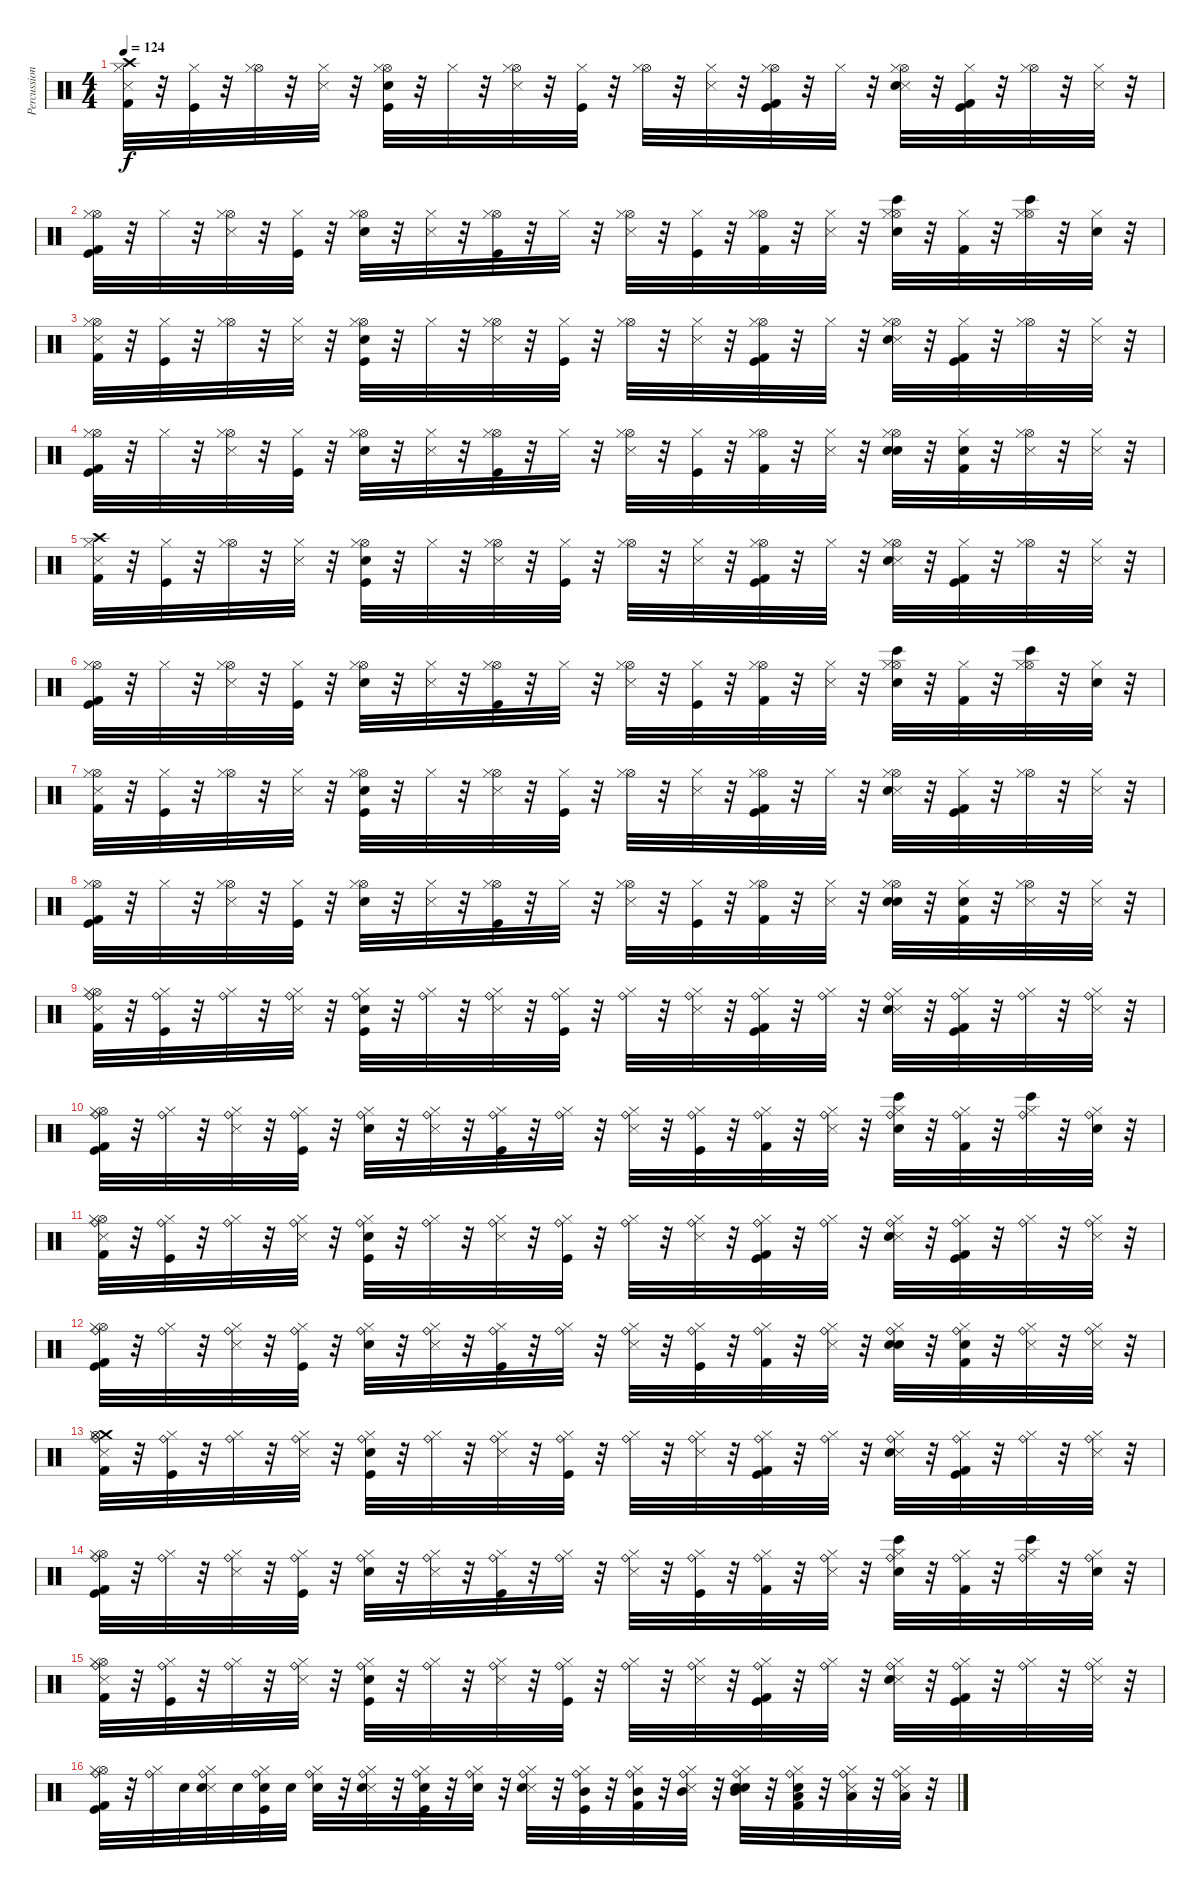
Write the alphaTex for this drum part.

\track ("Percussions" "Percussion") {instrument percussion}
\staff {score}
\articulation defaults
\ts (4 4)
\tempo 124
\clef neutral
\ks c
("Metronome (hit)" "Crash high (hit)" "Kick (hit) 2" "Hi-Hat (closed)").32{dy f} r.32 ("Kick (hit)" "Hi-Hat (closed)").32 r.32 ("Hi-Hat (open)" "Hi-Hat (closed)").32 r.32 ("Metronome (hit)" "Hi-Hat (closed)").32 r.32 ("Kick (hit)" "Hi-Hat (open)" "Electric Snare (hit)" "Hi-Hat (closed)").32 r.32 "Hi-Hat (closed)".32 r.32 ("Metronome (hit)" "Hi-Hat (open)" "Hi-Hat (closed)").32 r.32 ("Kick (hit)" "Hi-Hat (closed)").32 r.32 ("Hi-Hat (open)" "Hi-Hat (closed)").32 r.32 ("Metronome (hit)" "Hi-Hat (closed)").32 r.32 ("Kick (hit)" "Hi-Hat (open)" "Kick (hit) 2" "Hi-Hat (closed)").32 r.32 "Hi-Hat (closed)".32 r.32 ("Metronome (hit)" "Hi-Hat (open)" "Electric Snare (hit)" "Hi-Hat (closed)").32 r.32 ("Kick (hit)" "Kick (hit) 2" "Hi-Hat (closed)").32 r.32 ("Hi-Hat (open)" "Hi-Hat (closed)").32 r.32 ("Metronome (hit)" "Hi-Hat (closed)").32 r.32 |
("Kick (hit)" "Hi-Hat (open)" "Kick (hit) 2" "Hi-Hat (closed)").32 r.32 "Hi-Hat (closed)".32 r.32 ("Metronome (hit)" "Hi-Hat (open)" "Hi-Hat (closed)").32 r.32 ("Kick (hit)" "Hi-Hat (closed)").32 r.32 ("Hi-Hat (open)" "Electric Snare (hit)" "Hi-Hat (closed)").32 r.32 ("Metronome (hit)" "Hi-Hat (closed)").32 r.32 ("Kick (hit)" "Hi-Hat (open)" "Hi-Hat (closed)").32 r.32 "Hi-Hat (closed)".32 r.32 ("Metronome (hit)" "Hi-Hat (open)" "Hi-Hat (closed)").32 r.32 ("Kick (hit)" "Hi-Hat (closed)").32 r.32 ("Hi-Hat (open)" "Kick (hit) 2" "Hi-Hat (closed)").32 r.32 ("Metronome (hit)" "Hi-Hat (closed)").32 r.32 ("Bongo High (hit)" "Hi-Hat (open)" "Electric Snare (hit)" "Hi-Hat (closed)").32 r.32 ("Kick (hit) 2" "Hi-Hat (closed)").32 r.32 ("Bongo High (hit)" "Hi-Hat (open)" "Hi-Hat (closed)").32 r.32 ("Hi-Hat (closed)" "Electric Snare (hit)").32 r.32 |
("Metronome (hit)" "Kick (hit) 2" "Hi-Hat (open)" "Hi-Hat (closed)").32 r.32 ("Kick (hit)" "Hi-Hat (closed)").32 r.32 ("Hi-Hat (open)" "Hi-Hat (closed)").32 r.32 ("Metronome (hit)" "Hi-Hat (closed)").32 r.32 ("Kick (hit)" "Hi-Hat (open)" "Electric Snare (hit)" "Hi-Hat (closed)").32 r.32 "Hi-Hat (closed)".32 r.32 ("Metronome (hit)" "Hi-Hat (open)" "Hi-Hat (closed)").32 r.32 ("Kick (hit)" "Hi-Hat (closed)").32 r.32 ("Hi-Hat (open)" "Hi-Hat (closed)").32 r.32 ("Metronome (hit)" "Hi-Hat (closed)").32 r.32 ("Kick (hit)" "Hi-Hat (open)" "Kick (hit) 2" "Hi-Hat (closed)").32 r.32 "Hi-Hat (closed)".32 r.32 ("Metronome (hit)" "Hi-Hat (open)" "Electric Snare (hit)" "Hi-Hat (closed)").32 r.32 ("Kick (hit)" "Kick (hit) 2" "Hi-Hat (closed)").32 r.32 ("Hi-Hat (open)" "Hi-Hat (closed)").32 r.32 ("Metronome (hit)" "Hi-Hat (closed)").32 r.32 |
("Kick (hit)" "Kick (hit) 2" "Hi-Hat (open)" "Hi-Hat (closed)").32 r.32 "Hi-Hat (closed)".32 r.32 ("Metronome (hit)" "Hi-Hat (open)" "Hi-Hat (closed)").32 r.32 ("Kick (hit)" "Hi-Hat (closed)").32 r.32 ("Hi-Hat (open)" "Electric Snare (hit)" "Hi-Hat (closed)").32 r.32 ("Metronome (hit)" "Hi-Hat (closed)").32 r.32 ("Kick (hit)" "Hi-Hat (open)" "Hi-Hat (closed)").32 r.32 "Hi-Hat (closed)".32 r.32 ("Metronome (hit)" "Hi-Hat (open)" "Hi-Hat (closed)").32 r.32 ("Kick (hit)" "Hi-Hat (closed)").32 r.32 ("Hi-Hat (open)" "Kick (hit) 2" "Hi-Hat (closed)").32 r.32 ("Metronome (hit)" "Hi-Hat (closed)").32 r.32 ("Hand Clap (hit)" "Hi-Hat (open)" "Electric Snare (hit)" "Hi-Hat (closed)").32 r.32 ("Hand Clap (hit)" "Kick (hit) 2" "Hi-Hat (closed)").32 r.32 ("Snare (side stick) 3" "Hi-Hat (open)" "Hi-Hat (closed)").32 r.32 ("Snare (side stick) 3" "Hi-Hat (closed)").32 r.32 |
("Metronome (hit)" "Crash high (hit)" "Kick (hit) 2" "Hi-Hat (closed)").32 r.32 ("Kick (hit)" "Hi-Hat (closed)").32 r.32 ("Hi-Hat (open)" "Hi-Hat (closed)").32 r.32 ("Metronome (hit)" "Hi-Hat (closed)").32 r.32 ("Kick (hit)" "Hi-Hat (open)" "Electric Snare (hit)" "Hi-Hat (closed)").32 r.32 "Hi-Hat (closed)".32 r.32 ("Metronome (hit)" "Hi-Hat (open)" "Hi-Hat (closed)").32 r.32 ("Kick (hit)" "Hi-Hat (closed)").32 r.32 ("Hi-Hat (open)" "Hi-Hat (closed)").32 r.32 ("Metronome (hit)" "Hi-Hat (closed)").32 r.32 ("Kick (hit)" "Hi-Hat (open)" "Kick (hit) 2" "Hi-Hat (closed)").32 r.32 "Hi-Hat (closed)".32 r.32 ("Metronome (hit)" "Hi-Hat (open)" "Electric Snare (hit)" "Hi-Hat (closed)").32 r.32 ("Kick (hit)" "Kick (hit) 2" "Hi-Hat (closed)").32 r.32 ("Hi-Hat (open)" "Hi-Hat (closed)").32 r.32 ("Metronome (hit)" "Hi-Hat (closed)").32 r.32 |
("Kick (hit)" "Hi-Hat (open)" "Kick (hit) 2" "Hi-Hat (closed)").32 r.32 "Hi-Hat (closed)".32 r.32 ("Metronome (hit)" "Hi-Hat (open)" "Hi-Hat (closed)").32 r.32 ("Kick (hit)" "Hi-Hat (closed)").32 r.32 ("Hi-Hat (open)" "Electric Snare (hit)" "Hi-Hat (closed)").32 r.32 ("Metronome (hit)" "Hi-Hat (closed)").32 r.32 ("Kick (hit)" "Hi-Hat (open)" "Hi-Hat (closed)").32 r.32 "Hi-Hat (closed)".32 r.32 ("Metronome (hit)" "Hi-Hat (open)" "Hi-Hat (closed)").32 r.32 ("Kick (hit)" "Hi-Hat (closed)").32 r.32 ("Hi-Hat (open)" "Kick (hit) 2" "Hi-Hat (closed)").32 r.32 ("Metronome (hit)" "Hi-Hat (closed)").32 r.32 ("Bongo High (hit)" "Hi-Hat (open)" "Electric Snare (hit)" "Hi-Hat (closed)").32 r.32 ("Kick (hit) 2" "Hi-Hat (closed)").32 r.32 ("Bongo High (hit)" "Hi-Hat (open)" "Hi-Hat (closed)").32 r.32 ("Hi-Hat (closed)" "Electric Snare (hit)").32 r.32 |
("Metronome (hit)" "Kick (hit) 2" "Hi-Hat (open)" "Hi-Hat (closed)").32 r.32 ("Kick (hit)" "Hi-Hat (closed)").32 r.32 ("Hi-Hat (open)" "Hi-Hat (closed)").32 r.32 ("Metronome (hit)" "Hi-Hat (closed)").32 r.32 ("Kick (hit)" "Hi-Hat (open)" "Electric Snare (hit)" "Hi-Hat (closed)").32 r.32 "Hi-Hat (closed)".32 r.32 ("Metronome (hit)" "Hi-Hat (open)" "Hi-Hat (closed)").32 r.32 ("Kick (hit)" "Hi-Hat (closed)").32 r.32 ("Hi-Hat (open)" "Hi-Hat (closed)").32 r.32 ("Metronome (hit)" "Hi-Hat (closed)").32 r.32 ("Kick (hit)" "Hi-Hat (open)" "Kick (hit) 2" "Hi-Hat (closed)").32 r.32 "Hi-Hat (closed)".32 r.32 ("Metronome (hit)" "Hi-Hat (open)" "Electric Snare (hit)" "Hi-Hat (closed)").32 r.32 ("Kick (hit)" "Kick (hit) 2" "Hi-Hat (closed)").32 r.32 ("Hi-Hat (open)" "Hi-Hat (closed)").32 r.32 ("Metronome (hit)" "Hi-Hat (closed)").32 r.32 |
("Kick (hit)" "Kick (hit) 2" "Hi-Hat (open)" "Hi-Hat (closed)").32 r.32 "Hi-Hat (closed)".32 r.32 ("Metronome (hit)" "Hi-Hat (open)" "Hi-Hat (closed)").32 r.32 ("Kick (hit)" "Hi-Hat (closed)").32 r.32 ("Hi-Hat (open)" "Electric Snare (hit)" "Hi-Hat (closed)").32 r.32 ("Metronome (hit)" "Hi-Hat (closed)").32 r.32 ("Kick (hit)" "Hi-Hat (open)" "Hi-Hat (closed)").32 r.32 "Hi-Hat (closed)".32 r.32 ("Metronome (hit)" "Hi-Hat (open)" "Hi-Hat (closed)").32 r.32 ("Kick (hit)" "Hi-Hat (closed)").32 r.32 ("Hi-Hat (open)" "Kick (hit) 2" "Hi-Hat (closed)").32 r.32 ("Metronome (hit)" "Hi-Hat (closed)").32 r.32 ("Hand Clap (hit)" "Hi-Hat (open)" "Electric Snare (hit)" "Hi-Hat (closed)").32 r.32 ("Hand Clap (hit)" "Kick (hit) 2" "Hi-Hat (closed)").32 r.32 ("Snare (side stick) 3" "Hi-Hat (open)" "Hi-Hat (closed)").32 r.32 ("Snare (side stick) 3" "Hi-Hat (closed)").32 r.32 |
("Metronome (hit)" "Ride (bell)" "Kick (hit) 2" "Hi-Hat (open)" "Hi-Hat (closed)").32 r.32 ("Kick (hit)" "Ride (bell)" "Hi-Hat (closed)").32 r.32 ("Ride (bell)" "Hi-Hat (closed)").32 r.32 ("Metronome (hit)" "Ride (bell)" "Hi-Hat (closed)").32 r.32 ("Kick (hit)" "Ride (bell)" "Electric Snare (hit)" "Hi-Hat (closed)").32 r.32 ("Ride (bell)" "Hi-Hat (closed)").32 r.32 ("Metronome (hit)" "Hi-Hat (closed)" "Ride (bell)").32 r.32 ("Kick (hit)" "Ride (bell)" "Hi-Hat (closed)").32 r.32 ("Hi-Hat (closed)" "Ride (bell)").32 r.32 ("Metronome (hit)" "Ride (bell)" "Hi-Hat (closed)").32 r.32 ("Kick (hit)" "Hi-Hat (closed)" "Ride (bell)" "Kick (hit) 2").32 r.32 ("Ride (bell)" "Hi-Hat (closed)").32 r.32 ("Metronome (hit)" "Hi-Hat (closed)" "Ride (bell)" "Electric Snare (hit)").32 r.32 ("Kick (hit)" "Ride (bell)" "Kick (hit) 2" "Hi-Hat (closed)").32 r.32 ("Ride (bell)" "Hi-Hat (closed)").32 r.32 ("Metronome (hit)" "Ride (bell)" "Hi-Hat (closed)").32 r.32 |
("Kick (hit)" "Ride (bell)" "Hi-Hat (open)" "Kick (hit) 2" "Hi-Hat (closed)").32 r.32 ("Ride (bell)" "Hi-Hat (closed)").32 r.32 ("Metronome (hit)" "Ride (bell)" "Hi-Hat (closed)").32 r.32 ("Kick (hit)" "Ride (bell)" "Hi-Hat (closed)").32 r.32 ("Ride (bell)" "Electric Snare (hit)" "Hi-Hat (closed)").32 r.32 ("Metronome (hit)" "Ride (bell)" "Hi-Hat (closed)").32 r.32 ("Kick (hit)" "Hi-Hat (closed)" "Ride (bell)").32 r.32 ("Ride (bell)" "Hi-Hat (closed)").32 r.32 ("Metronome (hit)" "Hi-Hat (closed)" "Ride (bell)").32 r.32 ("Kick (hit)" "Ride (bell)" "Hi-Hat (closed)").32 r.32 ("Hi-Hat (closed)" "Ride (bell)" "Kick (hit) 2").32 r.32 ("Metronome (hit)" "Ride (bell)" "Hi-Hat (closed)").32 r.32 ("Bongo High (hit)" "Hi-Hat (closed)" "Ride (bell)" "Electric Snare (hit)").32 r.32 ("Ride (bell)" "Kick (hit) 2" "Hi-Hat (closed)").32 r.32 ("Bongo High (hit)" "Ride (bell)" "Hi-Hat (closed)").32 r.32 ("Ride (bell)" "Hi-Hat (closed)" "Electric Snare (hit)").32 r.32 |
("Metronome (hit)" "Ride (bell)" "Kick (hit) 2" "Hi-Hat (open)" "Hi-Hat (closed)").32 r.32 ("Kick (hit)" "Ride (bell)" "Hi-Hat (closed)").32 r.32 ("Ride (bell)" "Hi-Hat (closed)").32 r.32 ("Metronome (hit)" "Ride (bell)" "Hi-Hat (closed)").32 r.32 ("Kick (hit)" "Ride (bell)" "Electric Snare (hit)" "Hi-Hat (closed)").32 r.32 ("Ride (bell)" "Hi-Hat (closed)").32 r.32 ("Metronome (hit)" "Hi-Hat (closed)" "Ride (bell)").32 r.32 ("Kick (hit)" "Ride (bell)" "Hi-Hat (closed)").32 r.32 ("Hi-Hat (closed)" "Ride (bell)").32 r.32 ("Metronome (hit)" "Ride (bell)" "Hi-Hat (closed)").32 r.32 ("Kick (hit)" "Hi-Hat (closed)" "Ride (bell)" "Kick (hit) 2").32 r.32 ("Ride (bell)" "Hi-Hat (closed)").32 r.32 ("Metronome (hit)" "Hi-Hat (closed)" "Ride (bell)" "Electric Snare (hit)").32 r.32 ("Kick (hit)" "Ride (bell)" "Kick (hit) 2" "Hi-Hat (closed)").32 r.32 ("Ride (bell)" "Hi-Hat (closed)").32 r.32 ("Metronome (hit)" "Ride (bell)" "Hi-Hat (closed)").32 r.32 |
("Kick (hit)" "Ride (bell)" "Kick (hit) 2" "Hi-Hat (open)" "Hi-Hat (closed)").32 r.32 ("Ride (bell)" "Hi-Hat (closed)").32 r.32 ("Metronome (hit)" "Ride (bell)" "Hi-Hat (closed)").32 r.32 ("Kick (hit)" "Ride (bell)" "Hi-Hat (closed)").32 r.32 ("Ride (bell)" "Electric Snare (hit)" "Hi-Hat (closed)").32 r.32 ("Metronome (hit)" "Ride (bell)" "Hi-Hat (closed)").32 r.32 ("Kick (hit)" "Hi-Hat (closed)" "Ride (bell)").32 r.32 ("Ride (bell)" "Hi-Hat (closed)").32 r.32 ("Metronome (hit)" "Hi-Hat (closed)" "Ride (bell)").32 r.32 ("Kick (hit)" "Ride (bell)" "Hi-Hat (closed)").32 r.32 ("Hi-Hat (closed)" "Ride (bell)" "Kick (hit) 2").32 r.32 ("Metronome (hit)" "Ride (bell)" "Hi-Hat (closed)").32 r.32 ("Hand Clap (hit)" "Hi-Hat (closed)" "Ride (bell)" "Electric Snare (hit)").32 r.32 ("Hand Clap (hit)" "Ride (bell)" "Kick (hit) 2" "Hi-Hat (closed)").32 r.32 ("Snare (side stick) 3" "Ride (bell)" "Hi-Hat (closed)").32 r.32 ("Snare (side stick) 3" "Ride (bell)" "Hi-Hat (closed)").32 r.32 |
("Metronome (hit)" "Crash medium (hit)" "Ride (bell)" "Kick (hit) 2" "Hi-Hat (open)" "Hi-Hat (closed)").32 r.32 ("Kick (hit)" "Ride (bell)" "Hi-Hat (closed)").32 r.32 ("Ride (bell)" "Hi-Hat (closed)").32 r.32 ("Metronome (hit)" "Ride (bell)" "Hi-Hat (closed)").32 r.32 ("Kick (hit)" "Ride (bell)" "Electric Snare (hit)" "Hi-Hat (closed)").32 r.32 ("Ride (bell)" "Hi-Hat (closed)").32 r.32 ("Metronome (hit)" "Hi-Hat (closed)" "Ride (bell)").32 r.32 ("Kick (hit)" "Ride (bell)" "Hi-Hat (closed)").32 r.32 ("Hi-Hat (closed)" "Ride (bell)").32 r.32 ("Metronome (hit)" "Ride (bell)" "Hi-Hat (closed)").32 r.32 ("Kick (hit)" "Hi-Hat (closed)" "Ride (bell)" "Kick (hit) 2").32 r.32 ("Ride (bell)" "Hi-Hat (closed)").32 r.32 ("Metronome (hit)" "Hi-Hat (closed)" "Ride (bell)" "Electric Snare (hit)").32 r.32 ("Kick (hit)" "Ride (bell)" "Kick (hit) 2" "Hi-Hat (closed)").32 r.32 ("Ride (bell)" "Hi-Hat (closed)").32 r.32 ("Metronome (hit)" "Ride (bell)" "Hi-Hat (closed)").32 r.32 |
("Kick (hit)" "Ride (bell)" "Hi-Hat (open)" "Kick (hit) 2" "Hi-Hat (closed)").32 r.32 ("Ride (bell)" "Hi-Hat (closed)").32 r.32 ("Metronome (hit)" "Ride (bell)" "Hi-Hat (closed)").32 r.32 ("Kick (hit)" "Ride (bell)" "Hi-Hat (closed)").32 r.32 ("Ride (bell)" "Electric Snare (hit)" "Hi-Hat (closed)").32 r.32 ("Metronome (hit)" "Ride (bell)" "Hi-Hat (closed)").32 r.32 ("Kick (hit)" "Hi-Hat (closed)" "Ride (bell)").32 r.32 ("Ride (bell)" "Hi-Hat (closed)").32 r.32 ("Metronome (hit)" "Hi-Hat (closed)" "Ride (bell)").32 r.32 ("Kick (hit)" "Ride (bell)" "Hi-Hat (closed)").32 r.32 ("Hi-Hat (closed)" "Ride (bell)" "Kick (hit) 2").32 r.32 ("Metronome (hit)" "Ride (bell)" "Hi-Hat (closed)").32 r.32 ("Bongo High (hit)" "Hi-Hat (closed)" "Ride (bell)" "Electric Snare (hit)").32 r.32 ("Ride (bell)" "Kick (hit) 2" "Hi-Hat (closed)").32 r.32 ("Bongo High (hit)" "Ride (bell)" "Hi-Hat (closed)").32 r.32 ("Ride (bell)" "Hi-Hat (closed)" "Electric Snare (hit)").32 r.32 |
("Metronome (hit)" "Ride (bell)" "Kick (hit) 2" "Hi-Hat (open)" "Hi-Hat (closed)").32 r.32 ("Kick (hit)" "Ride (bell)" "Hi-Hat (closed)").32 r.32 ("Ride (bell)" "Hi-Hat (closed)").32 r.32 ("Metronome (hit)" "Ride (bell)" "Hi-Hat (closed)").32 r.32 ("Kick (hit)" "Ride (bell)" "Electric Snare (hit)" "Hi-Hat (closed)").32 r.32 ("Ride (bell)" "Hi-Hat (closed)").32 r.32 ("Metronome (hit)" "Hi-Hat (closed)" "Ride (bell)").32 r.32 ("Kick (hit)" "Ride (bell)" "Hi-Hat (closed)").32 r.32 ("Hi-Hat (closed)" "Ride (bell)").32 r.32 ("Metronome (hit)" "Ride (bell)" "Hi-Hat (closed)").32 r.32 ("Kick (hit)" "Hi-Hat (closed)" "Ride (bell)" "Kick (hit) 2").32 r.32 ("Ride (bell)" "Hi-Hat (closed)").32 r.32 ("Metronome (hit)" "Hi-Hat (closed)" "Ride (bell)" "Electric Snare (hit)").32 r.32 ("Kick (hit)" "Ride (bell)" "Kick (hit) 2" "Hi-Hat (closed)").32 r.32 ("Ride (bell)" "Hi-Hat (closed)").32 r.32 ("Metronome (hit)" "Ride (bell)" "Hi-Hat (closed)").32 r.32 |
("Kick (hit)" "Ride (bell)" "Kick (hit) 2" "Hi-Hat (open)" "Hi-Hat (closed)").32 r.32 ("Ride (bell)" "Hi-Hat (closed)").32 "Electric Snare (hit)".32 ("Metronome (hit)" "Electric Snare (hit)" "Ride (bell)" "Hi-Hat (closed)").32 "Electric Snare (hit)".32 ("Kick (hit)" "Electric Snare (hit)" "Ride (bell)" "Hi-Hat (closed)").32 "Electric Snare (hit)".32 ("Electric Snare (hit)" "Ride (bell)" "Hi-Hat (closed)").32 r.32 ("Metronome (hit)" "Electric Snare (hit)" "Ride (bell)" "Hi-Hat (closed)").32 r.32 ("Kick (hit)" "Electric Snare (hit)" "Hi-Hat (closed)" "Ride (bell)").32 r.32 ("Electric Snare (hit)" "Ride (bell)" "Hi-Hat (closed)").32 r.32 ("Metronome (hit)" "Electric Snare (hit)" "Hi-Hat (closed)" "Ride (bell)").32 r.32 ("Kick (hit)" "Mid Tom (hit)" "Ride (bell)" "Hi-Hat (closed)").32 r.32 ("Mid Tom (hit)" "Hi-Hat (closed)" "Ride (bell)" "Kick (hit) 2").32 r.32 ("Metronome (hit)" "Mid Tom (hit)" "Ride (bell)" "Hi-Hat (closed)").32 r.32 ("Hand Clap (hit)" "Mid Tom (hit)" "Hi-Hat (closed)" "Ride (bell)" "Electric Snare (hit)").32 r.32 ("Hand Clap (hit)" "Low Tom (hit)" "Ride (bell)" "Kick (hit) 2" "Hi-Hat (closed)").32 r.32 ("Snare (side stick) 3" "Low Tom (hit)" "Ride (bell)" "Hi-Hat (closed)").32 r.32 ("Snare (side stick) 3" "Low Tom (hit)" "Ride (bell)" "Hi-Hat (closed)").32 r.32
